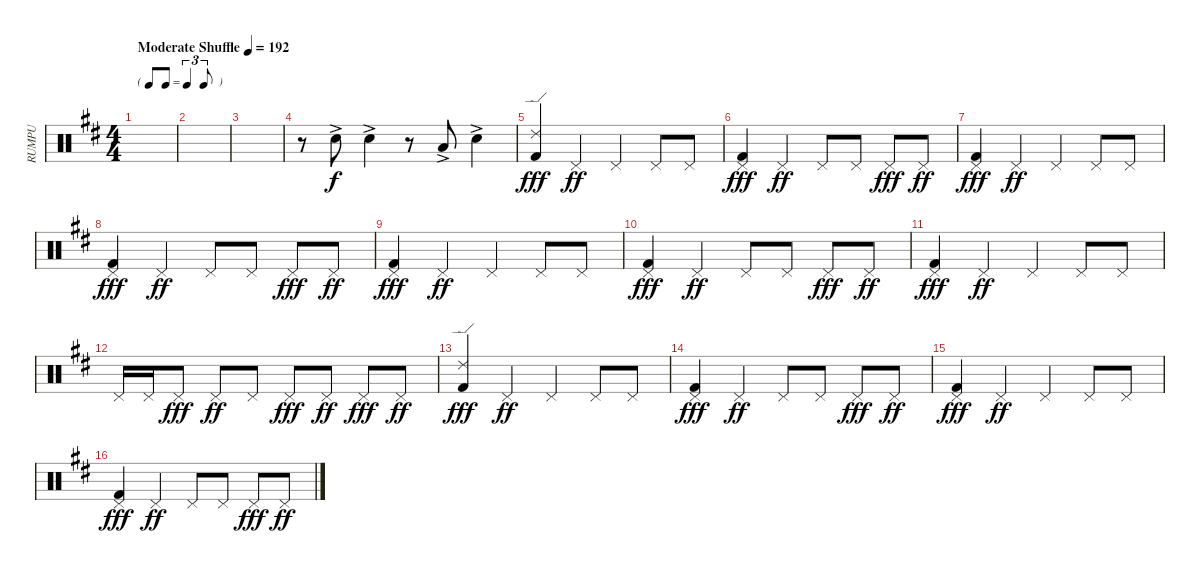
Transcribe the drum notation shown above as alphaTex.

\track ("RUMPU" "RUMPU") {instrument percussion}
\staff {score}
\articulation defaults
\ts (4 4)
\tf triplet8th
\tempo (192 "Moderate Shuffle")
\clef neutral
\ks d
|
|
|
r.8 "Electric Snare (hit)"{ac}.8 "Electric Snare (hit)"{ac}.4 r.8 "Low Tom (hit)"{ac}.8 "Electric Snare (hit)"{ac}.4 |
("Ride (edge) 2" "Kick (hit) 2").4{dy fff} "Pedal Hi-Hat (hit)".4{dy ff} "Pedal Hi-Hat (hit)".4 "Pedal Hi-Hat (hit)".8 "Pedal Hi-Hat (hit)".8 |
("Pedal Hi-Hat (hit)" "Kick (hit) 2").4{dy fff} "Pedal Hi-Hat (hit)".4{dy ff} "Pedal Hi-Hat (hit)".8 "Pedal Hi-Hat (hit)".8 "Pedal Hi-Hat (hit)".8{dy fff} "Pedal Hi-Hat (hit)".8{dy ff} |
("Pedal Hi-Hat (hit)" "Kick (hit) 2").4{dy fff} "Pedal Hi-Hat (hit)".4{dy ff} "Pedal Hi-Hat (hit)".4 "Pedal Hi-Hat (hit)".8 "Pedal Hi-Hat (hit)".8 |
("Pedal Hi-Hat (hit)" "Kick (hit) 2").4{dy fff} "Pedal Hi-Hat (hit)".4{dy ff} "Pedal Hi-Hat (hit)".8 "Pedal Hi-Hat (hit)".8 "Pedal Hi-Hat (hit)".8{dy fff} "Pedal Hi-Hat (hit)".8{dy ff} |
("Pedal Hi-Hat (hit)" "Kick (hit) 2").4{dy fff} "Pedal Hi-Hat (hit)".4{dy ff} "Pedal Hi-Hat (hit)".4 "Pedal Hi-Hat (hit)".8 "Pedal Hi-Hat (hit)".8 |
("Pedal Hi-Hat (hit)" "Kick (hit) 2").4{dy fff} "Pedal Hi-Hat (hit)".4{dy ff} "Pedal Hi-Hat (hit)".8 "Pedal Hi-Hat (hit)".8 "Pedal Hi-Hat (hit)".8{dy fff} "Pedal Hi-Hat (hit)".8{dy ff} |
("Pedal Hi-Hat (hit)" "Kick (hit) 2").4{dy fff} "Pedal Hi-Hat (hit)".4{dy ff} "Pedal Hi-Hat (hit)".4 "Pedal Hi-Hat (hit)".8 "Pedal Hi-Hat (hit)".8 |
"Pedal Hi-Hat (hit)".16 "Pedal Hi-Hat (hit)".16 "Pedal Hi-Hat (hit)".8{dy fff} "Pedal Hi-Hat (hit)".8{dy ff} "Pedal Hi-Hat (hit)".8 "Pedal Hi-Hat (hit)".8{dy fff} "Pedal Hi-Hat (hit)".8{dy ff} "Pedal Hi-Hat (hit)".8{dy fff} "Pedal Hi-Hat (hit)".8{dy ff} |
("Ride (edge) 2" "Kick (hit) 2").4{dy fff} "Pedal Hi-Hat (hit)".4{dy ff} "Pedal Hi-Hat (hit)".4 "Pedal Hi-Hat (hit)".8 "Pedal Hi-Hat (hit)".8 |
("Pedal Hi-Hat (hit)" "Kick (hit) 2").4{dy fff} "Pedal Hi-Hat (hit)".4{dy ff} "Pedal Hi-Hat (hit)".8 "Pedal Hi-Hat (hit)".8 "Pedal Hi-Hat (hit)".8{dy fff} "Pedal Hi-Hat (hit)".8{dy ff} |
("Pedal Hi-Hat (hit)" "Kick (hit) 2").4{dy fff} "Pedal Hi-Hat (hit)".4{dy ff} "Pedal Hi-Hat (hit)".4 "Pedal Hi-Hat (hit)".8 "Pedal Hi-Hat (hit)".8 |
("Pedal Hi-Hat (hit)" "Kick (hit) 2").4{dy fff} "Pedal Hi-Hat (hit)".4{dy ff} "Pedal Hi-Hat (hit)".8 "Pedal Hi-Hat (hit)".8 "Pedal Hi-Hat (hit)".8{dy fff} "Pedal Hi-Hat (hit)".8{dy ff}
